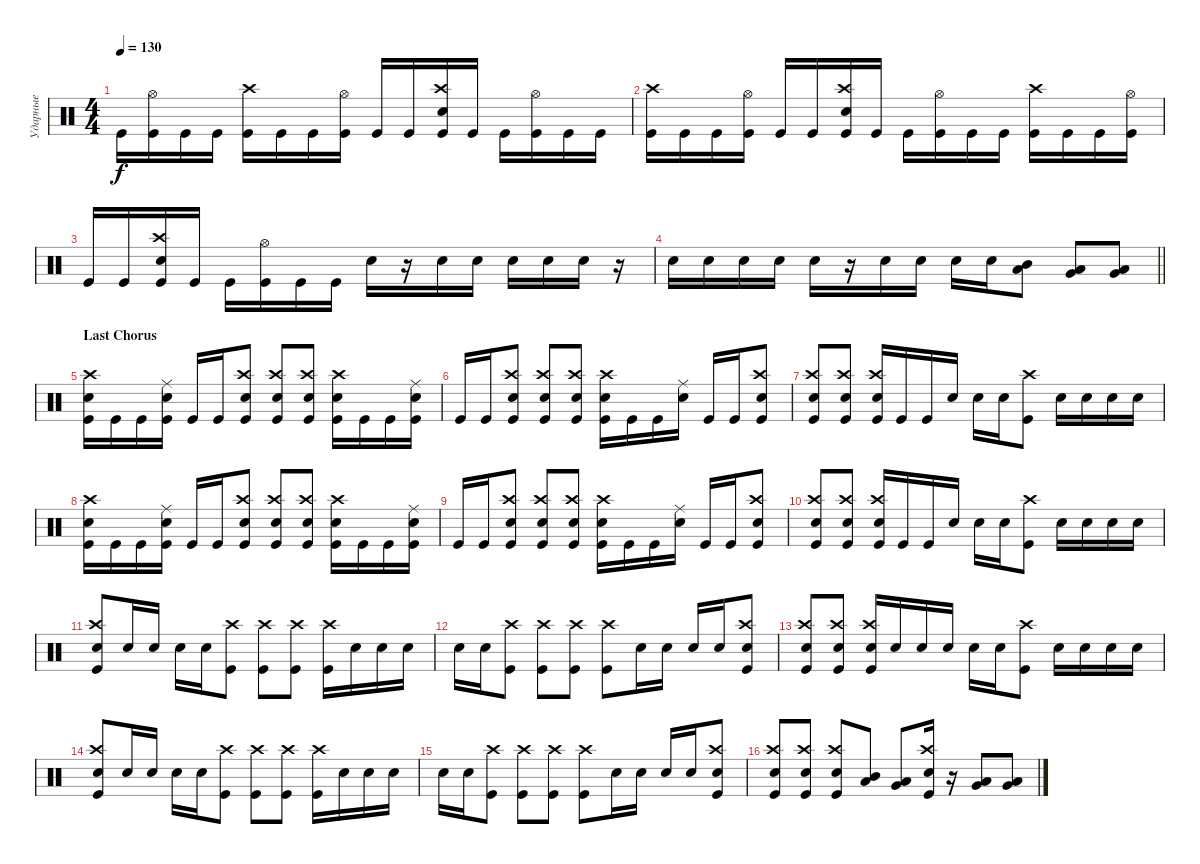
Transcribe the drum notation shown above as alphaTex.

\track ("Ударные" "Ударные") {instrument percussion}
\staff {score}
\articulation defaults
\ts (4 4)
\tempo 130
\clef neutral
\ks c "Kick (hit)".16{dy f}
("Hi-Hat (open)" "Kick (hit)").16 "Kick (hit)".16 "Kick (hit)".16 ("Crash high (hit)" "Kick (hit)").16 "Kick (hit)".16 "Kick (hit)".16 ("Hi-Hat (open)" "Kick (hit)").16 "Kick (hit)".16 "Kick (hit)".16 ("Snare (hit) 2" "Crash high (hit)" "Kick (hit)").16 "Kick (hit)".16 "Kick (hit)".16 ("Hi-Hat (open)" "Kick (hit)").16 "Kick (hit)".16 "Kick (hit)".16 |
("Crash high (hit)" "Kick (hit)").16 "Kick (hit)".16 "Kick (hit)".16 ("Hi-Hat (open)" "Kick (hit)").16 "Kick (hit)".16 "Kick (hit)".16 ("Crash high (hit)" "Snare (hit) 2" "Kick (hit)").16 "Kick (hit)".16 "Kick (hit)".16 ("Hi-Hat (open)" "Kick (hit)").16 "Kick (hit)".16 "Kick (hit)".16 ("Crash high (hit)" "Kick (hit)").16 "Kick (hit)".16 "Kick (hit)".16 ("Hi-Hat (open)" "Kick (hit)").16 |
"Kick (hit)".16 "Kick (hit)".16 ("Crash high (hit)" "Snare (hit) 2" "Kick (hit)").16 "Kick (hit)".16 "Kick (hit)".16 ("Hi-Hat (open)" "Kick (hit)").16 "Kick (hit)".16 "Kick (hit)".16 "Snare (hit) 2".16 r.16 "Snare (hit) 2".16 "Snare (hit) 2".16 "Snare (hit) 2".16 "Snare (hit) 2".16 "Snare (hit) 2".16 r.16 |
\barLineRight lightlight "Snare (hit) 2".16 "Snare (hit) 2".16 "Snare (hit) 2".16 "Snare (hit) 2".16 "Snare (hit) 2".16
r.16 "Snare (hit) 2".16 "Snare (hit) 2".16 "Snare (hit) 2".16 "Snare (hit) 2".16 ("Mid Tom (hit)" "Low Tom (hit)").8 ("Low Tom (hit)" "Very Low Tom (hit)").8 ("Very Low Tom (hit)" "Low Floor Tom (hit)").8 |
\section ("" "Last Chorus")
("Crash high (hit)" "Snare (hit) 2" "Kick (hit)").16 "Kick (hit)".16 "Kick (hit)".16 ("Ride (middle)" "Snare (hit) 2" "Kick (hit)").16 "Kick (hit)".16 "Kick (hit)".16 ("Crash high (hit)" "Snare (hit) 2" "Kick (hit)").8 ("Snare (hit) 2" "Crash high (hit)" "Kick (hit)").8 ("Snare (hit) 2" "Crash high (hit)" "Kick (hit)").8 ("Crash high (hit)" "Snare (hit) 2" "Kick (hit)").16 "Kick (hit)".16 "Kick (hit)".16 ("Ride (middle)" "Snare (hit) 2" "Kick (hit)").16 |
"Kick (hit)".16 "Kick (hit)".16 ("Crash high (hit)" "Snare (hit) 2" "Kick (hit)").8 ("Crash high (hit)" "Snare (hit) 2" "Kick (hit)").8 ("Crash high (hit)" "Snare (hit) 2" "Kick (hit)").8 ("Crash high (hit)" "Snare (hit) 2" "Kick (hit)").16 "Kick (hit)".16 "Kick (hit)".16 ("Ride (middle)" "Snare (hit) 2").16 "Kick (hit)".16 "Kick (hit)".16 ("Snare (hit) 2" "Crash high (hit)" "Kick (hit)").8 |
("Snare (hit) 2" "Crash high (hit)" "Kick (hit)").8 ("Snare (hit) 2" "Crash high (hit)" "Kick (hit)").8 ("Snare (hit) 2" "Crash high (hit)" "Kick (hit)").16 "Kick (hit)".16 "Kick (hit)".16 "Snare (hit) 2".16 "Snare (hit) 2".16 "Snare (hit) 2".16 ("Crash high (hit)" "Kick (hit)").8 "Snare (hit) 2".16 "Snare (hit) 2".16 "Snare (hit) 2".16 "Snare (hit) 2".16 |
("Crash high (hit)" "Snare (hit) 2" "Kick (hit)").16 "Kick (hit)".16 "Kick (hit)".16 ("Ride (middle)" "Snare (hit) 2" "Kick (hit)").16 "Kick (hit)".16 "Kick (hit)".16 ("Crash high (hit)" "Snare (hit) 2" "Kick (hit)").8 ("Snare (hit) 2" "Crash high (hit)" "Kick (hit)").8 ("Snare (hit) 2" "Crash high (hit)" "Kick (hit)").8 ("Crash high (hit)" "Snare (hit) 2" "Kick (hit)").16 "Kick (hit)".16 "Kick (hit)".16 ("Ride (middle)" "Snare (hit) 2" "Kick (hit)").16 |
"Kick (hit)".16 "Kick (hit)".16 ("Crash high (hit)" "Snare (hit) 2" "Kick (hit)").8 ("Crash high (hit)" "Snare (hit) 2" "Kick (hit)").8 ("Crash high (hit)" "Snare (hit) 2" "Kick (hit)").8 ("Crash high (hit)" "Snare (hit) 2" "Kick (hit)").16 "Kick (hit)".16 "Kick (hit)".16 ("Ride (middle)" "Snare (hit) 2").16 "Kick (hit)".16 "Kick (hit)".16 ("Snare (hit) 2" "Crash high (hit)" "Kick (hit)").8 |
("Snare (hit) 2" "Crash high (hit)" "Kick (hit)").8 ("Snare (hit) 2" "Crash high (hit)" "Kick (hit)").8 ("Snare (hit) 2" "Crash high (hit)" "Kick (hit)").16 "Kick (hit)".16 "Kick (hit)".16 "Snare (hit) 2".16 "Snare (hit) 2".16 "Snare (hit) 2".16 ("Crash high (hit)" "Kick (hit)").8 "Snare (hit) 2".16 "Snare (hit) 2".16 "Snare (hit) 2".16 "Snare (hit) 2".16 |
("Crash high (hit)" "Snare (hit) 2" "Kick (hit)").8 "Snare (hit) 2".16 "Snare (hit) 2".16 "Snare (hit) 2".16 "Snare (hit) 2".16 ("Crash high (hit)" "Kick (hit)").8 ("Crash high (hit)" "Kick (hit)").8 ("Crash high (hit)" "Kick (hit)").8 ("Crash high (hit)" "Kick (hit)").16 "Snare (hit) 2".16 "Snare (hit) 2".16 "Snare (hit) 2".16 |
"Snare (hit) 2".16 "Snare (hit) 2".16 ("Crash high (hit)" "Kick (hit)").8 ("Crash high (hit)" "Kick (hit)").8 ("Crash high (hit)" "Kick (hit)").8 ("Crash high (hit)" "Kick (hit)").8 "Snare (hit) 2".16 "Snare (hit) 2".16 "Snare (hit) 2".16 "Snare (hit) 2".16 ("Snare (hit) 2" "Crash high (hit)" "Kick (hit)").8 |
("Snare (hit) 2" "Crash high (hit)" "Kick (hit)").8 ("Snare (hit) 2" "Crash high (hit)" "Kick (hit)").8 ("Snare (hit) 2" "Crash high (hit)" "Kick (hit)").16 "Snare (hit) 2".16 "Snare (hit) 2".16 "Snare (hit) 2".16 "Snare (hit) 2".16 "Snare (hit) 2".16 ("Crash high (hit)" "Kick (hit)").8 "Snare (hit) 2".16 "Snare (hit) 2".16 "Snare (hit) 2".16 "Snare (hit) 2".16 |
("Crash high (hit)" "Snare (hit) 2" "Kick (hit)").8 "Snare (hit) 2".16 "Snare (hit) 2".16 "Snare (hit) 2".16 "Snare (hit) 2".16 ("Crash high (hit)" "Kick (hit)").8 ("Crash high (hit)" "Kick (hit)").8 ("Crash high (hit)" "Kick (hit)").8 ("Crash high (hit)" "Kick (hit)").16 "Snare (hit) 2".16 "Snare (hit) 2".16 "Snare (hit) 2".16 |
"Snare (hit) 2".16 "Snare (hit) 2".16 ("Crash high (hit)" "Kick (hit)").8 ("Crash high (hit)" "Kick (hit)").8 ("Crash high (hit)" "Kick (hit)").8 ("Crash high (hit)" "Kick (hit)").8 "Snare (hit) 2".16 "Snare (hit) 2".16 "Snare (hit) 2".16 "Snare (hit) 2".16 ("Snare (hit) 2" "Crash high (hit)" "Kick (hit)").8 |
("Snare (hit) 2" "Crash high (hit)" "Kick (hit)").8 ("Snare (hit) 2" "Crash high (hit)" "Kick (hit)").8 ("Snare (hit) 2" "Crash high (hit)" "Kick (hit)").8 ("Mid Tom (hit)" "Low Tom (hit)").8 ("Low Tom (hit)" "Very Low Tom (hit)").8 ("Snare (hit) 2" "Crash high (hit)" "Kick (hit)").16 r.16 ("Low Tom (hit)" "Very Low Tom (hit)").8 ("Very Low Tom (hit)" "Low Floor Tom (hit)").8
